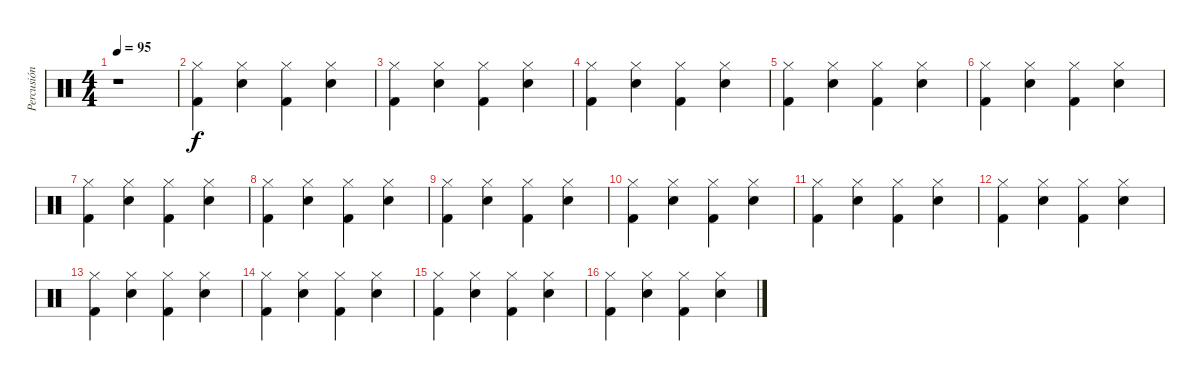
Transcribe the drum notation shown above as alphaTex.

\track ("Percusión" "Percusión") {instrument percussion}
\staff {score}
\articulation defaults
\ts (4 4)
\tempo 95
\clef neutral
\ks c
r.1{dy f} |
("Hi-Hat (closed)" "Kick (hit) 2").4 ("Hi-Hat (closed)" "Snare (hit) 2").4 ("Hi-Hat (closed)" "Kick (hit) 2").4 ("Hi-Hat (closed)" "Snare (hit) 2").4 |
("Hi-Hat (closed)" "Kick (hit) 2").4 ("Hi-Hat (closed)" "Snare (hit) 2").4 ("Hi-Hat (closed)" "Kick (hit) 2").4 ("Hi-Hat (closed)" "Snare (hit) 2").4 |
("Hi-Hat (closed)" "Kick (hit) 2").4 ("Hi-Hat (closed)" "Snare (hit) 2").4 ("Hi-Hat (closed)" "Kick (hit) 2").4 ("Hi-Hat (closed)" "Snare (hit) 2").4 |
("Hi-Hat (closed)" "Kick (hit) 2").4 ("Hi-Hat (closed)" "Snare (hit) 2").4 ("Hi-Hat (closed)" "Kick (hit) 2").4 ("Hi-Hat (closed)" "Snare (hit) 2").4 |
("Hi-Hat (closed)" "Kick (hit) 2").4 ("Hi-Hat (closed)" "Snare (hit) 2").4 ("Hi-Hat (closed)" "Kick (hit) 2").4 ("Hi-Hat (closed)" "Snare (hit) 2").4 |
("Hi-Hat (closed)" "Kick (hit) 2").4 ("Hi-Hat (closed)" "Snare (hit) 2").4 ("Hi-Hat (closed)" "Kick (hit) 2").4 ("Hi-Hat (closed)" "Snare (hit) 2").4 |
("Hi-Hat (closed)" "Kick (hit) 2").4 ("Hi-Hat (closed)" "Snare (hit) 2").4 ("Hi-Hat (closed)" "Kick (hit) 2").4 ("Hi-Hat (closed)" "Snare (hit) 2").4 |
("Hi-Hat (closed)" "Kick (hit) 2").4 ("Hi-Hat (closed)" "Snare (hit) 2").4 ("Hi-Hat (closed)" "Kick (hit) 2").4 ("Hi-Hat (closed)" "Snare (hit) 2").4 |
("Hi-Hat (closed)" "Kick (hit) 2").4 ("Hi-Hat (closed)" "Snare (hit) 2").4 ("Hi-Hat (closed)" "Kick (hit) 2").4 ("Hi-Hat (closed)" "Snare (hit) 2").4 |
("Hi-Hat (closed)" "Kick (hit) 2").4 ("Hi-Hat (closed)" "Snare (hit) 2").4 ("Hi-Hat (closed)" "Kick (hit) 2").4 ("Hi-Hat (closed)" "Snare (hit) 2").4 |
("Hi-Hat (closed)" "Kick (hit) 2").4 ("Hi-Hat (closed)" "Snare (hit) 2").4 ("Hi-Hat (closed)" "Kick (hit) 2").4 ("Hi-Hat (closed)" "Snare (hit) 2").4 |
("Hi-Hat (closed)" "Kick (hit) 2").4 ("Hi-Hat (closed)" "Snare (hit) 2").4 ("Hi-Hat (closed)" "Kick (hit) 2").4 ("Hi-Hat (closed)" "Snare (hit) 2").4 |
("Hi-Hat (closed)" "Kick (hit) 2").4 ("Hi-Hat (closed)" "Snare (hit) 2").4 ("Hi-Hat (closed)" "Kick (hit) 2").4 ("Hi-Hat (closed)" "Snare (hit) 2").4 |
("Hi-Hat (closed)" "Kick (hit) 2").4 ("Hi-Hat (closed)" "Snare (hit) 2").4 ("Hi-Hat (closed)" "Kick (hit) 2").4 ("Hi-Hat (closed)" "Snare (hit) 2").4 |
("Hi-Hat (closed)" "Kick (hit) 2").4 ("Hi-Hat (closed)" "Snare (hit) 2").4 ("Hi-Hat (closed)" "Kick (hit) 2").4 ("Hi-Hat (closed)" "Snare (hit) 2").4
